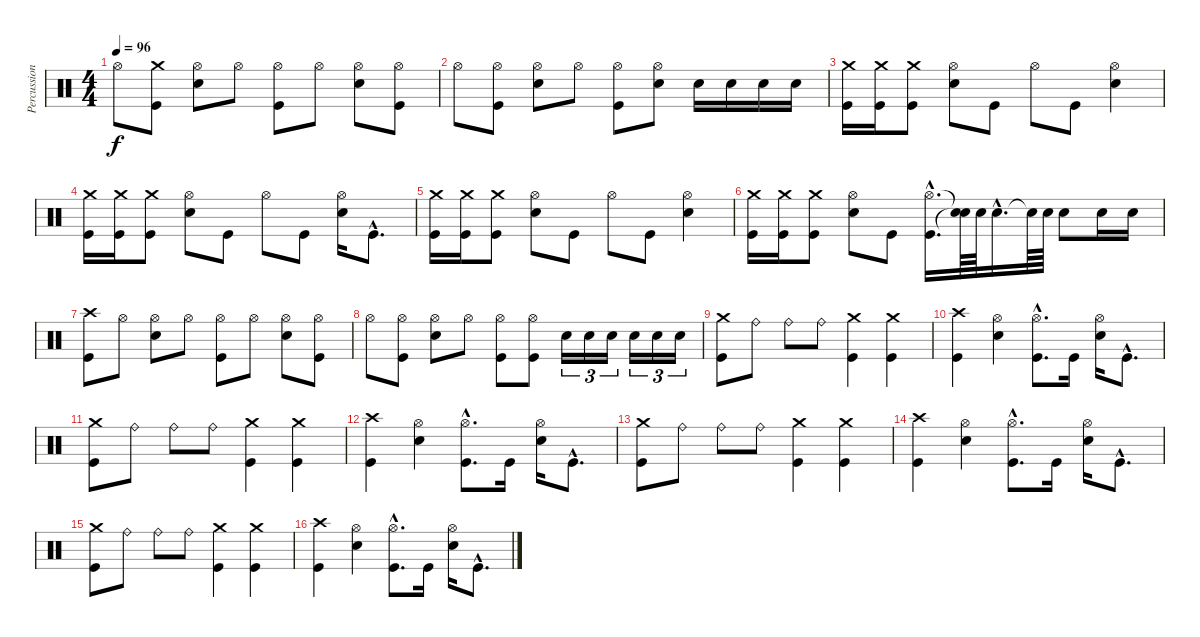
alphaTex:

\track ("Percussion" "Percussion") {instrument percussion}
\staff {score}
\articulation defaults
\ts (4 4)
\tempo 96
\clef neutral
\ks c "Hi-Hat (open)".8{dy f}
("Kick (hit)" "Crash medium (hit)").8 ("Electric Snare (hit)" "Hi-Hat (open)").8 "Hi-Hat (open)".8 ("Kick (hit)" "Hi-Hat (open)").8 "Hi-Hat (open)".8 ("Electric Snare (hit)" "Hi-Hat (open)").8 ("Kick (hit)" "Hi-Hat (open)").8 |
"Hi-Hat (open)".8 ("Kick (hit)" "Hi-Hat (open)").8 ("Electric Snare (hit)" "Hi-Hat (open)").8 "Hi-Hat (open)".8 ("Kick (hit)" "Hi-Hat (open)").8 ("Electric Snare (hit)" "Hi-Hat (open)").8 "Electric Snare (hit)".16 "Electric Snare (hit)".16 "Electric Snare (hit)".16 "Electric Snare (hit)".16 |
("Kick (hit)" "Crash medium (hit)").16 ("Kick (hit)" "Crash medium (hit)").16 ("Kick (hit)" "Crash medium (hit)").8 ("Electric Snare (hit)" "Hi-Hat (open)").8 "Kick (hit)".8 "Hi-Hat (open)".8 "Kick (hit)".8 ("Electric Snare (hit)" "Hi-Hat (open)").4 |
("Kick (hit)" "Crash medium (hit)").16 ("Kick (hit)" "Crash medium (hit)").16 ("Kick (hit)" "Crash medium (hit)").8 ("Electric Snare (hit)" "Hi-Hat (open)").8 "Kick (hit)".8 "Hi-Hat (open)".8 "Kick (hit)".8 ("Electric Snare (hit)" "Hi-Hat (open)").16 "Kick (hit)"{hac}.8{d} |
("Kick (hit)" "Crash medium (hit)").16 ("Kick (hit)" "Crash medium (hit)").16 ("Kick (hit)" "Crash medium (hit)").8 ("Electric Snare (hit)" "Hi-Hat (open)").8 "Kick (hit)".8 "Hi-Hat (open)".8 "Kick (hit)".8 ("Electric Snare (hit)" "Hi-Hat (open)").4 |
("Crash medium (hit)" "Kick (hit)").16 ("Crash medium (hit)" "Kick (hit)").16 ("Crash medium (hit)" "Kick (hit)").8 ("Hi-Hat (open)" "Electric Snare (hit)").8 "Kick (hit)".8 ("Hi-Hat (open)"{hac} "Kick (hit)"{hac}).16{d} ("Snare (hit)"{t} "Snare (hit)"{t}).64 "Electric Snare (hit)".64 "Electric Snare (hit)"{hac}.16{d} "Snare (hit)"{t}.64 "Electric Snare (hit)".64 "Electric Snare (hit)".8 "Electric Snare (hit)".16 "Electric Snare (hit)".16 |
("Kick (hit)" "Crash high (hit)").8 "Hi-Hat (open)".8 ("Electric Snare (hit)" "Hi-Hat (open)").8 "Hi-Hat (open)".8 ("Kick (hit)" "Hi-Hat (open)").8 "Hi-Hat (open)".8 ("Electric Snare (hit)" "Hi-Hat (open)").8 ("Kick (hit)" "Hi-Hat (open)").8 |
"Hi-Hat (open)".8 ("Kick (hit)" "Hi-Hat (open)").8 ("Electric Snare (hit)" "Hi-Hat (open)").8 "Hi-Hat (open)".8 ("Kick (hit)" "Hi-Hat (open)").8 ("Kick (hit)" "Hi-Hat (open)").8 "Electric Snare (hit)".16{tu (3 2)} "Electric Snare (hit)".16{tu (3 2)} "Electric Snare (hit)".16{tu (3 2)} "Electric Snare (hit)".16{tu (3 2)} "Electric Snare (hit)".16{tu (3 2)} "Electric Snare (hit)".16{tu (3 2)} |
("Kick (hit)" "Crash medium (hit)").8 "Ride (bell)".8 "Ride (bell)".8 "Ride (bell)".8 ("Crash medium (hit)" "Kick (hit)").4 ("Crash medium (hit)" "Kick (hit)").4 |
("Kick (hit)" "Crash high (hit)").4 ("Electric Snare (hit)" "Hi-Hat (open)").4 ("Kick (hit)"{hac} "Hi-Hat (open)"{hac}).8{d} "Kick (hit)".16 ("Electric Snare (hit)" "Hi-Hat (open)").16 "Kick (hit)"{hac}.8{d} |
("Kick (hit)" "Crash medium (hit)").8 "Ride (bell)".8 "Ride (bell)".8 "Ride (bell)".8 ("Crash medium (hit)" "Kick (hit)").4 ("Crash medium (hit)" "Kick (hit)").4 |
("Kick (hit)" "Crash high (hit)").4 ("Electric Snare (hit)" "Hi-Hat (open)").4 ("Kick (hit)"{hac} "Hi-Hat (open)"{hac}).8{d} "Kick (hit)".16 ("Electric Snare (hit)" "Hi-Hat (open)").16 "Kick (hit)"{hac}.8{d} |
("Kick (hit)" "Crash medium (hit)").8 "Ride (bell)".8 "Ride (bell)".8 "Ride (bell)".8 ("Crash medium (hit)" "Kick (hit)").4 ("Crash medium (hit)" "Kick (hit)").4 |
("Kick (hit)" "Crash high (hit)").4 ("Electric Snare (hit)" "Hi-Hat (open)").4 ("Kick (hit)"{hac} "Hi-Hat (open)"{hac}).8{d} "Kick (hit)".16 ("Electric Snare (hit)" "Hi-Hat (open)").16 "Kick (hit)"{hac}.8{d} |
("Kick (hit)" "Crash medium (hit)").8 "Ride (bell)".8 "Ride (bell)".8 "Ride (bell)".8 ("Crash medium (hit)" "Kick (hit)").4 ("Crash medium (hit)" "Kick (hit)").4 |
("Kick (hit)" "Crash high (hit)").4 ("Electric Snare (hit)" "Hi-Hat (open)").4 ("Kick (hit)"{hac} "Hi-Hat (open)"{hac}).8{d} "Kick (hit)".16 ("Electric Snare (hit)" "Hi-Hat (open)").16 "Kick (hit)"{hac}.8{d}
